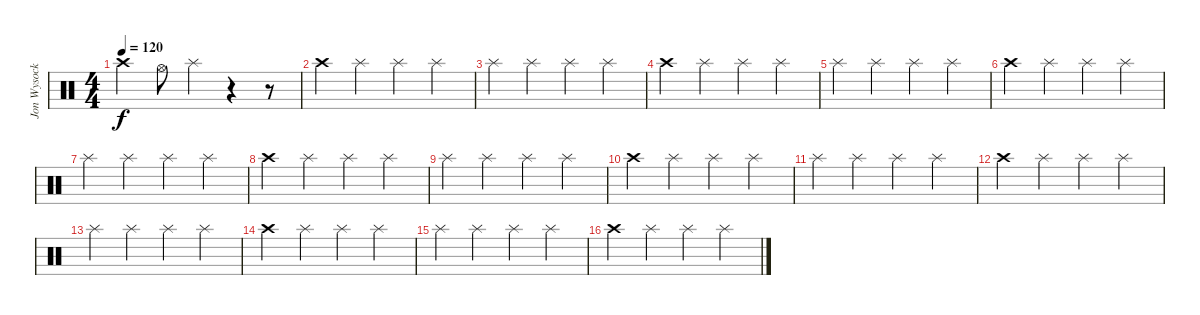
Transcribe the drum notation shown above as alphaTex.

\track ("Jon Wysocki cymbals" "Jon Wysock") {instrument percussion}
\staff {score}
\articulation defaults
\ts (4 4)
\tempo 120
\clef neutral
\ks c "Crash high (hit)".4{dy f} "Hi-Hat (open)".8 "Splash (hit)".4
r.4 r.8 |
"Crash high (hit)".4 "Splash (hit)".4 "Splash (hit)".4 "Splash (hit)".4 |
"Splash (hit)".4 "Splash (hit)".4 "Splash (hit)".4 "Splash (hit)".4 |
"Crash high (hit)".4 "Splash (hit)".4 "Splash (hit)".4 "Splash (hit)".4 |
"Splash (hit)".4 "Splash (hit)".4 "Splash (hit)".4 "Splash (hit)".4 |
"Crash high (hit)".4 "Splash (hit)".4 "Splash (hit)".4 "Splash (hit)".4 |
"Splash (hit)".4 "Splash (hit)".4 "Splash (hit)".4 "Splash (hit)".4 |
"Crash high (hit)".4 "Splash (hit)".4 "Splash (hit)".4 "Splash (hit)".4 |
"Splash (hit)".4 "Splash (hit)".4 "Splash (hit)".4 "Splash (hit)".4 |
"Crash high (hit)".4 "Splash (hit)".4 "Splash (hit)".4 "Splash (hit)".4 |
"Splash (hit)".4 "Splash (hit)".4 "Splash (hit)".4 "Splash (hit)".4 |
"Crash high (hit)".4 "Splash (hit)".4 "Splash (hit)".4 "Splash (hit)".4 |
"Splash (hit)".4 "Splash (hit)".4 "Splash (hit)".4 "Splash (hit)".4 |
"Crash high (hit)".4 "Splash (hit)".4 "Splash (hit)".4 "Splash (hit)".4 |
"Splash (hit)".4 "Splash (hit)".4 "Splash (hit)".4 "Splash (hit)".4 |
"Crash high (hit)".4 "Splash (hit)".4 "Splash (hit)".4 "Splash (hit)".4
